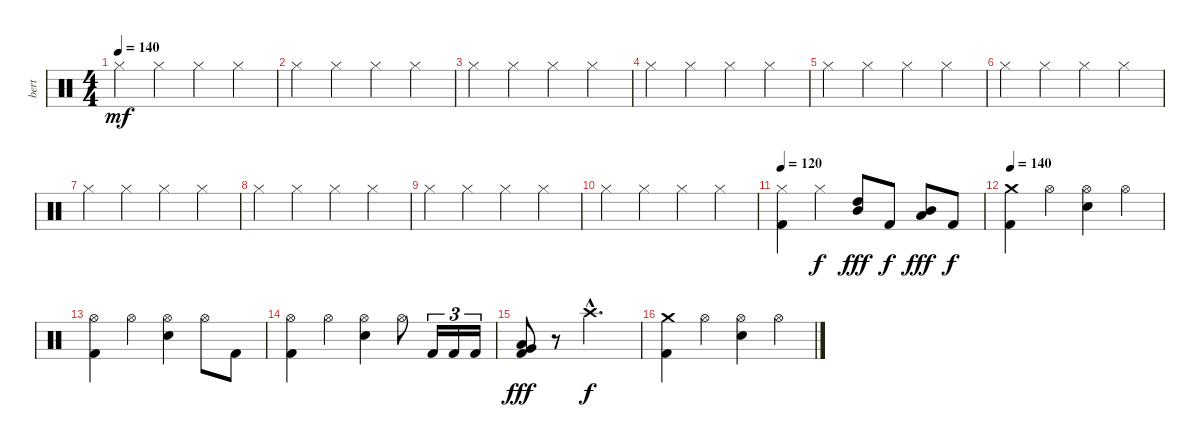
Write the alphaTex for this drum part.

\track ("bert" "bert") {instrument percussion}
\staff {score}
\articulation defaults
\ts (4 4)
\tempo 140
\tempo 70
\tempo 140
\clef neutral
\ks c "Hi-Hat (closed)".4{dy mf} "Hi-Hat (closed)".4 "Hi-Hat (closed)".4 "Hi-Hat (closed)".4
|
"Hi-Hat (closed)".4 "Hi-Hat (closed)".4 "Hi-Hat (closed)".4 "Hi-Hat (closed)".4 |
"Hi-Hat (closed)".4 "Hi-Hat (closed)".4 "Hi-Hat (closed)".4 "Hi-Hat (closed)".4 |
"Hi-Hat (closed)".4 "Hi-Hat (closed)".4 "Hi-Hat (closed)".4 "Hi-Hat (closed)".4 |
"Hi-Hat (closed)".4 "Hi-Hat (closed)".4 "Hi-Hat (closed)".4 "Hi-Hat (closed)".4 |
"Hi-Hat (closed)".4 "Hi-Hat (closed)".4 "Hi-Hat (closed)".4 "Hi-Hat (closed)".4 |
"Hi-Hat (closed)".4 "Hi-Hat (closed)".4 "Hi-Hat (closed)".4 "Hi-Hat (closed)".4 |
"Hi-Hat (closed)".4 "Hi-Hat (closed)".4 "Hi-Hat (closed)".4 "Hi-Hat (closed)".4 |
"Hi-Hat (closed)".4 "Hi-Hat (closed)".4 "Hi-Hat (closed)".4 "Hi-Hat (closed)".4 |
"Hi-Hat (closed)".4 "Hi-Hat (closed)".4 "Hi-Hat (closed)".4 "Hi-Hat (closed)".4 |
\tempo 120
("Hi-Hat (closed)" "Kick (hit) 2").4 "Hi-Hat (closed)".4{dy f} ("High Tom (hit)" "Mid Tom (hit)").8{dy fff} "Kick (hit) 2".8{dy f} ("Mid Tom (hit)" "Low Tom (hit)").8{dy fff} "Kick (hit) 2".8{dy f} |
\tempo 140
("Crash medium (hit)" "Kick (hit) 2").4 "Hi-Hat (open)".4 ("Hi-Hat (open)" "Snare (hit) 2").4 "Hi-Hat (open)".4 |
("Hi-Hat (open)" "Kick (hit) 2").4 "Hi-Hat (open)".4 ("Hi-Hat (open)" "Snare (hit) 2").4 "Hi-Hat (open)".8 "Kick (hit) 2".8 |
("Hi-Hat (open)" "Kick (hit) 2").4 "Hi-Hat (open)".4 ("Hi-Hat (open)" "Snare (hit) 2").4 "Hi-Hat (open)".8 "Kick (hit) 2".16{tu (3 2)} "Kick (hit) 2".16{tu (3 2)} "Kick (hit) 2".16{tu (3 2)} |
("Low Tom (hit)" "Very Low Tom (hit)" "Kick (hit) 2").8{dy fff} r.8 "Crash high (hit)"{hac}.2{d dy f} |
("Crash medium (hit)" "Kick (hit) 2").4 "Hi-Hat (open)".4 ("Hi-Hat (open)" "Snare (hit) 2").4 "Hi-Hat (open)".4
